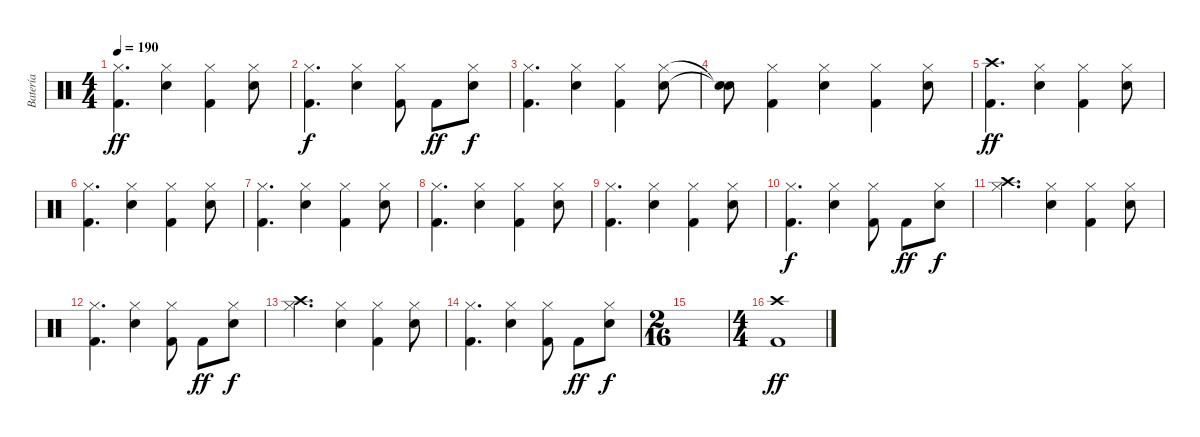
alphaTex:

\track ("Batería" "Batería") {instrument percussion}
\staff {score}
\articulation defaults
\ts (4 4)
\tempo 190
\clef neutral
\ks c
("Kick (hit) 2" "Hi-Hat (closed)").4{d dy ff} ("Electric Snare (hit)" "Hi-Hat (closed)").4 ("Kick (hit) 2" "Hi-Hat (closed)").4 ("Electric Snare (hit)" "Hi-Hat (closed)").8 |
("Kick (hit) 2" "Hi-Hat (closed)").4{d dy f} ("Electric Snare (hit)" "Hi-Hat (closed)").4 ("Kick (hit) 2" "Hi-Hat (closed)").8 "Kick (hit) 2".8{dy ff} ("Electric Snare (hit)" "Hi-Hat (closed)").8{dy f} |
("Kick (hit) 2" "Hi-Hat (closed)").4{d} ("Electric Snare (hit)" "Hi-Hat (closed)").4 ("Kick (hit) 2" "Hi-Hat (closed)").4 ("Electric Snare (hit)" "Hi-Hat (closed)").8 |
("Snare (hit)"{t} "Snare (hit)"{t}).8 ("Kick (hit) 2" "Hi-Hat (closed)").4 ("Electric Snare (hit)" "Hi-Hat (closed)").4 ("Kick (hit) 2" "Hi-Hat (closed)").4 ("Electric Snare (hit)" "Hi-Hat (closed)").8 |
("Crash high (hit)" "Kick (hit) 2").4{d dy ff} ("Electric Snare (hit)" "Hi-Hat (closed)").4 ("Kick (hit) 2" "Hi-Hat (closed)").4 ("Electric Snare (hit)" "Hi-Hat (closed)").8 |
("Kick (hit) 2" "Hi-Hat (closed)").4{d} ("Electric Snare (hit)" "Hi-Hat (closed)").4 ("Kick (hit) 2" "Hi-Hat (closed)").4 ("Electric Snare (hit)" "Hi-Hat (closed)").8 |
("Kick (hit) 2" "Hi-Hat (closed)").4{d} ("Electric Snare (hit)" "Hi-Hat (closed)").4 ("Kick (hit) 2" "Hi-Hat (closed)").4 ("Electric Snare (hit)" "Hi-Hat (closed)").8 |
("Kick (hit) 2" "Hi-Hat (closed)").4{d} ("Electric Snare (hit)" "Hi-Hat (closed)").4 ("Kick (hit) 2" "Hi-Hat (closed)").4 ("Electric Snare (hit)" "Hi-Hat (closed)").8 |
("Kick (hit) 2" "Hi-Hat (closed)").4{d} ("Electric Snare (hit)" "Hi-Hat (closed)").4 ("Kick (hit) 2" "Hi-Hat (closed)").4 ("Electric Snare (hit)" "Hi-Hat (closed)").8 |
("Kick (hit) 2" "Hi-Hat (closed)").4{d dy f} ("Electric Snare (hit)" "Hi-Hat (closed)").4 ("Kick (hit) 2" "Hi-Hat (closed)").8 "Kick (hit) 2".8{dy ff} ("Electric Snare (hit)" "Hi-Hat (closed)").8{dy f} |
("Crash high (hit)" "Hi-Hat (closed)").4{d} ("Electric Snare (hit)" "Hi-Hat (closed)").4 ("Kick (hit) 2" "Hi-Hat (closed)").4 ("Electric Snare (hit)" "Hi-Hat (closed)").8 |
("Kick (hit) 2" "Hi-Hat (closed)").4{d} ("Electric Snare (hit)" "Hi-Hat (closed)").4 ("Kick (hit) 2" "Hi-Hat (closed)").8 "Kick (hit) 2".8{dy ff} ("Electric Snare (hit)" "Hi-Hat (closed)").8{dy f} |
("Crash high (hit)" "Hi-Hat (closed)").4{d} ("Electric Snare (hit)" "Hi-Hat (closed)").4 ("Kick (hit) 2" "Hi-Hat (closed)").4 ("Electric Snare (hit)" "Hi-Hat (closed)").8 |
("Kick (hit) 2" "Hi-Hat (closed)").4{d} ("Electric Snare (hit)" "Hi-Hat (closed)").4 ("Kick (hit) 2" "Hi-Hat (closed)").8 "Kick (hit) 2".8{dy ff} ("Electric Snare (hit)" "Hi-Hat (closed)").8{dy f} |
\ts (2 16)
|
\ts (4 4)
("Crash high (hit)" "Kick (hit) 2").1{dy ff}
